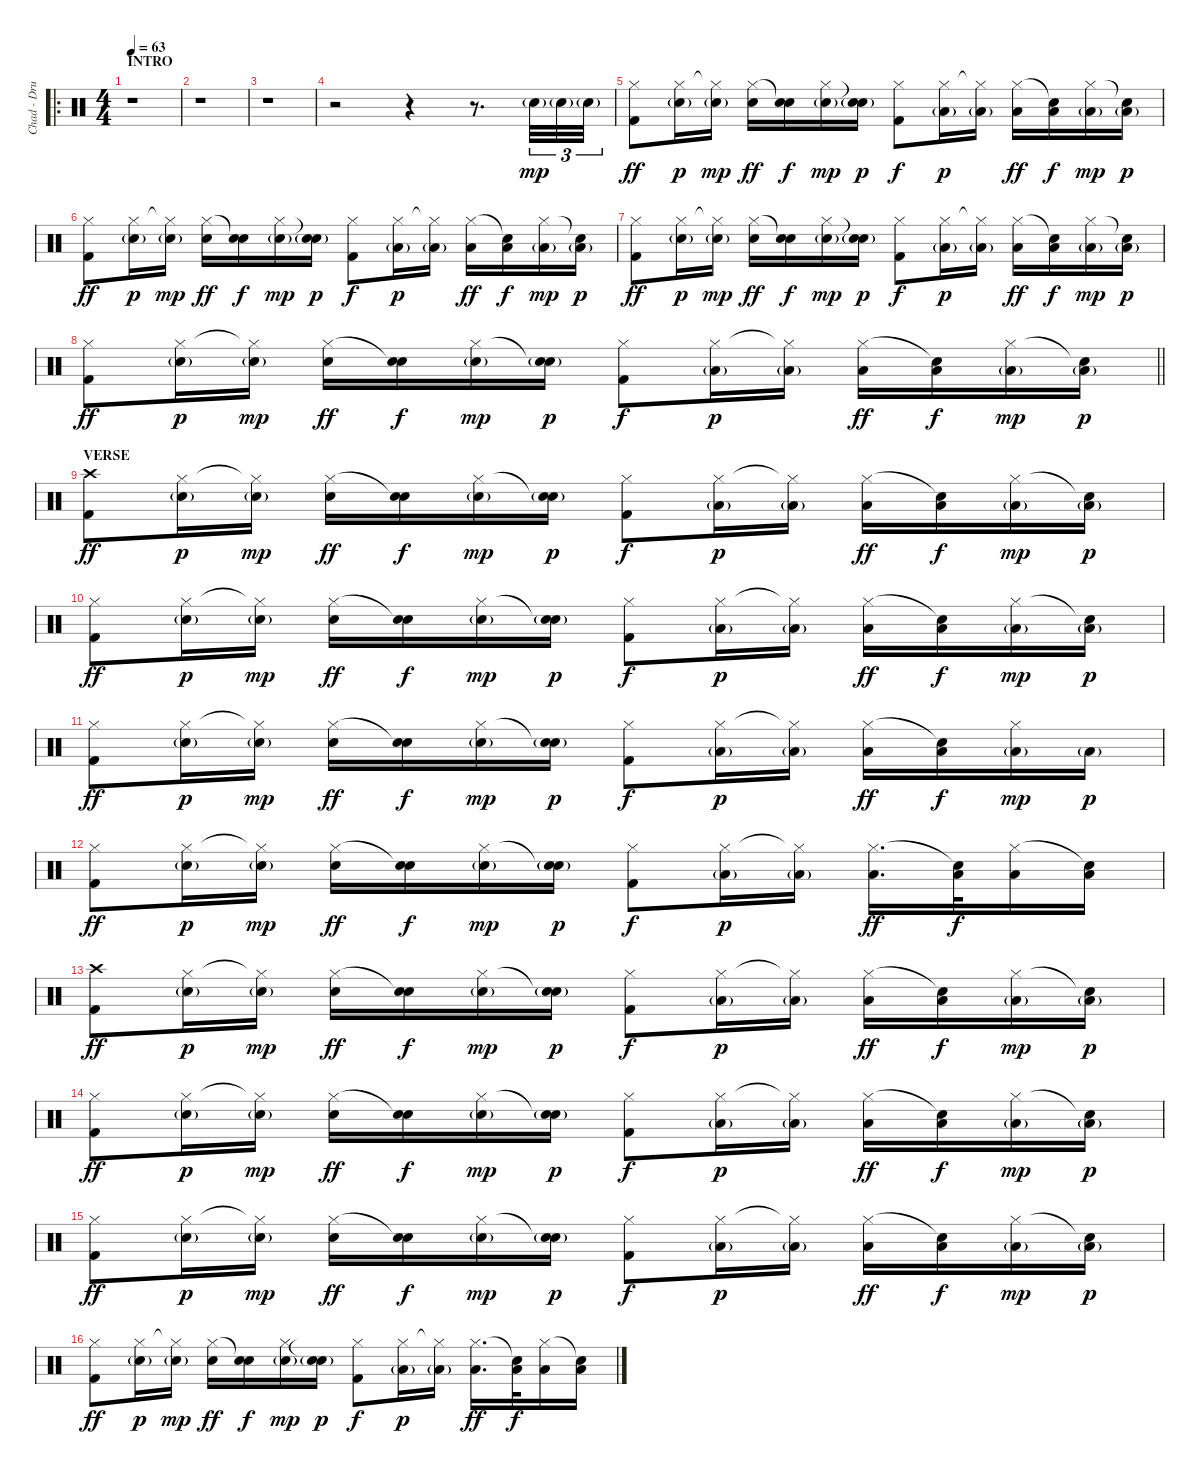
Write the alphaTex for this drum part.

\track ("Chad - Drums" "Chad - Dru") {instrument percussion}
\staff {score}
\articulation defaults
\ro
\ts (4 4)
\section ("" "INTRO")
\tempo 63
\clef neutral
\ks c
r.1{dy mp} |
r.1 |
r.1 |
r.2 r.4 r.8{d} "Snare (hit) 2"{g}.32{tu (3 2)} "Snare (hit) 2"{g}.32{tu (3 2)} "Snare (hit) 2"{g}.32{tu (3 2)} |
("Hi-Hat (closed)" "Kick (hit) 2").8{dy ff} ("Hi-Hat (closed)" "Snare (hit) 2"{g}).16{dy p} ("Hi-Hat (closed)"{t} "Snare (hit) 2"{g}).16{dy mp} ("Hi-Hat (closed)" "Snare (hit) 2").16{dy ff} ("Snare (hit)"{t} "Snare (hit) 2").16{dy f} ("Hi-Hat (closed)" "Snare (hit) 2"{g}).16{dy mp} ("Snare (hit)"{t} "Snare (hit) 2"{g}).16{dy p} ("Hi-Hat (closed)" "Kick (hit) 2").8{dy f} ("Hi-Hat (closed)" "Low Floor Tom (hit)"{g}).16{dy p} ("Hi-Hat (closed)"{t} "Low Floor Tom (hit)"{g}).16 ("Hi-Hat (closed)" "Low Floor Tom (hit)").16{dy ff} ("Snare (hit)"{t} "Low Floor Tom (hit)").16{dy f} ("Hi-Hat (closed)" "Low Floor Tom (hit)"{g}).16{dy mp} ("Snare (hit)"{t} "Low Floor Tom (hit)"{g}).16{dy p} |
("Hi-Hat (closed)" "Kick (hit) 2").8{dy ff} ("Hi-Hat (closed)" "Snare (hit) 2"{g}).16{dy p} ("Hi-Hat (closed)"{t} "Snare (hit) 2"{g}).16{dy mp} ("Hi-Hat (closed)" "Snare (hit) 2").16{dy ff} ("Snare (hit)"{t} "Snare (hit) 2").16{dy f} ("Hi-Hat (closed)" "Snare (hit) 2"{g}).16{dy mp} ("Snare (hit)"{t} "Snare (hit) 2"{g}).16{dy p} ("Hi-Hat (closed)" "Kick (hit) 2").8{dy f} ("Hi-Hat (closed)" "Low Floor Tom (hit)"{g}).16{dy p} ("Hi-Hat (closed)"{t} "Low Floor Tom (hit)"{g}).16 ("Hi-Hat (closed)" "Low Floor Tom (hit)").16{dy ff} ("Snare (hit)"{t} "Low Floor Tom (hit)").16{dy f} ("Hi-Hat (closed)" "Low Floor Tom (hit)"{g}).16{dy mp} ("Snare (hit)"{t} "Low Floor Tom (hit)"{g}).16{dy p} |
("Hi-Hat (closed)" "Kick (hit) 2").8{dy ff} ("Hi-Hat (closed)" "Snare (hit) 2"{g}).16{dy p} ("Hi-Hat (closed)"{t} "Snare (hit) 2"{g}).16{dy mp} ("Hi-Hat (closed)" "Snare (hit) 2").16{dy ff} ("Snare (hit)"{t} "Snare (hit) 2").16{dy f} ("Hi-Hat (closed)" "Snare (hit) 2"{g}).16{dy mp} ("Snare (hit)"{t} "Snare (hit) 2"{g}).16{dy p} ("Hi-Hat (closed)" "Kick (hit) 2").8{dy f} ("Hi-Hat (closed)" "Low Floor Tom (hit)"{g}).16{dy p} ("Hi-Hat (closed)"{t} "Low Floor Tom (hit)"{g}).16 ("Hi-Hat (closed)" "Low Floor Tom (hit)").16{dy ff} ("Snare (hit)"{t} "Low Floor Tom (hit)").16{dy f} ("Hi-Hat (closed)" "Low Floor Tom (hit)"{g}).16{dy mp} ("Snare (hit)"{t} "Low Floor Tom (hit)"{g}).16{dy p} |
\barLineRight lightlight
("Hi-Hat (closed)" "Kick (hit) 2").8{dy ff} ("Hi-Hat (closed)" "Snare (hit) 2"{g}).16{dy p} ("Hi-Hat (closed)"{t} "Snare (hit) 2"{g}).16{dy mp} ("Hi-Hat (closed)" "Snare (hit) 2").16{dy ff} ("Snare (hit)"{t} "Snare (hit) 2").16{dy f} ("Hi-Hat (closed)" "Snare (hit) 2"{g}).16{dy mp} ("Snare (hit)"{t} "Snare (hit) 2"{g}).16{dy p} ("Hi-Hat (closed)" "Kick (hit) 2").8{dy f} ("Hi-Hat (closed)" "Low Floor Tom (hit)"{g}).16{dy p} ("Hi-Hat (closed)"{t} "Low Floor Tom (hit)"{g}).16 ("Hi-Hat (closed)" "Low Floor Tom (hit)").16{dy ff} ("Snare (hit)"{t} "Low Floor Tom (hit)").16{dy f} ("Hi-Hat (closed)" "Low Floor Tom (hit)"{g}).16{dy mp} ("Snare (hit)"{t} "Low Floor Tom (hit)"{g}).16{dy p} |
\section ("" "VERSE")
("Crash high (hit)" "Kick (hit) 2").8{dy ff} ("Hi-Hat (closed)" "Snare (hit) 2"{g}).16{dy p} ("Hi-Hat (closed)"{t} "Snare (hit) 2"{g}).16{dy mp} ("Hi-Hat (closed)" "Snare (hit) 2").16{dy ff} ("Snare (hit)"{t} "Snare (hit) 2").16{dy f} ("Hi-Hat (closed)" "Snare (hit) 2"{g}).16{dy mp} ("Snare (hit)"{t} "Snare (hit) 2"{g}).16{dy p} ("Hi-Hat (closed)" "Kick (hit) 2").8{dy f} ("Hi-Hat (closed)" "Low Floor Tom (hit)"{g}).16{dy p} ("Hi-Hat (closed)"{t} "Low Floor Tom (hit)"{g}).16 ("Hi-Hat (closed)" "Low Floor Tom (hit)").16{dy ff} ("Snare (hit)"{t} "Low Floor Tom (hit)").16{dy f} ("Hi-Hat (closed)" "Low Floor Tom (hit)"{g}).16{dy mp} ("Snare (hit)"{t} "Low Floor Tom (hit)"{g}).16{dy p} |
("Hi-Hat (closed)" "Kick (hit) 2").8{dy ff} ("Hi-Hat (closed)" "Snare (hit) 2"{g}).16{dy p} ("Hi-Hat (closed)"{t} "Snare (hit) 2"{g}).16{dy mp} ("Hi-Hat (closed)" "Snare (hit) 2").16{dy ff} ("Snare (hit)"{t} "Snare (hit) 2").16{dy f} ("Hi-Hat (closed)" "Snare (hit) 2"{g}).16{dy mp} ("Snare (hit)"{t} "Snare (hit) 2"{g}).16{dy p} ("Hi-Hat (closed)" "Kick (hit) 2").8{dy f} ("Hi-Hat (closed)" "Low Floor Tom (hit)"{g}).16{dy p} ("Hi-Hat (closed)"{t} "Low Floor Tom (hit)"{g}).16 ("Hi-Hat (closed)" "Low Floor Tom (hit)").16{dy ff} ("Snare (hit)"{t} "Low Floor Tom (hit)").16{dy f} ("Hi-Hat (closed)" "Low Floor Tom (hit)"{g}).16{dy mp} ("Snare (hit)"{t} "Low Floor Tom (hit)"{g}).16{dy p} |
("Hi-Hat (closed)" "Kick (hit) 2").8{dy ff} ("Hi-Hat (closed)" "Snare (hit) 2"{g}).16{dy p} ("Hi-Hat (closed)"{t} "Snare (hit) 2"{g}).16{dy mp} ("Hi-Hat (closed)" "Snare (hit) 2").16{dy ff} ("Snare (hit)"{t} "Snare (hit) 2").16{dy f} ("Hi-Hat (closed)" "Snare (hit) 2"{g}).16{dy mp} ("Snare (hit)"{t} "Snare (hit) 2"{g}).16{dy p} ("Hi-Hat (closed)" "Kick (hit) 2").8{dy f} ("Hi-Hat (closed)" "Low Floor Tom (hit)"{g}).16{dy p} ("Hi-Hat (closed)"{t} "Low Floor Tom (hit)"{g}).16 ("Hi-Hat (closed)" "Low Floor Tom (hit)").16{dy ff} ("Snare (hit)"{t} "Low Floor Tom (hit)").16{dy f} ("Hi-Hat (closed)" "Low Floor Tom (hit)"{g}).16{dy mp} "Low Floor Tom (hit)"{g}.16{dy p} |
("Hi-Hat (closed)" "Kick (hit) 2").8{dy ff} ("Hi-Hat (closed)" "Snare (hit) 2"{g}).16{dy p} ("Hi-Hat (closed)"{t} "Snare (hit) 2"{g}).16{dy mp} ("Hi-Hat (closed)" "Snare (hit) 2").16{dy ff} ("Snare (hit)"{t} "Snare (hit) 2").16{dy f} ("Hi-Hat (closed)" "Snare (hit) 2"{g}).16{dy mp} ("Snare (hit)"{t} "Snare (hit) 2"{g}).16{dy p} ("Hi-Hat (closed)" "Kick (hit) 2").8{dy f} ("Hi-Hat (closed)" "Low Floor Tom (hit)"{g}).16{dy p} ("Hi-Hat (closed)"{t} "Low Floor Tom (hit)"{g}).16 ("Hi-Hat (closed)" "Low Floor Tom (hit)").16{d dy ff} ("Snare (hit)"{t} "Low Floor Tom (hit)").32{dy f} ("Hi-Hat (closed)" "Low Floor Tom (hit)").16 ("Snare (hit)"{t} "Low Floor Tom (hit)").16 |
("Crash high (hit)" "Kick (hit) 2").8{dy ff} ("Hi-Hat (closed)" "Snare (hit) 2"{g}).16{dy p} ("Hi-Hat (closed)"{t} "Snare (hit) 2"{g}).16{dy mp} ("Hi-Hat (closed)" "Snare (hit) 2").16{dy ff} ("Snare (hit)"{t} "Snare (hit) 2").16{dy f} ("Hi-Hat (closed)" "Snare (hit) 2"{g}).16{dy mp} ("Snare (hit)"{t} "Snare (hit) 2"{g}).16{dy p} ("Hi-Hat (closed)" "Kick (hit) 2").8{dy f} ("Hi-Hat (closed)" "Low Floor Tom (hit)"{g}).16{dy p} ("Hi-Hat (closed)"{t} "Low Floor Tom (hit)"{g}).16 ("Hi-Hat (closed)" "Low Floor Tom (hit)").16{dy ff} ("Snare (hit)"{t} "Low Floor Tom (hit)").16{dy f} ("Hi-Hat (closed)" "Low Floor Tom (hit)"{g}).16{dy mp} ("Snare (hit)"{t} "Low Floor Tom (hit)"{g}).16{dy p} |
("Hi-Hat (closed)" "Kick (hit) 2").8{dy ff} ("Hi-Hat (closed)" "Snare (hit) 2"{g}).16{dy p} ("Hi-Hat (closed)"{t} "Snare (hit) 2"{g}).16{dy mp} ("Hi-Hat (closed)" "Snare (hit) 2").16{dy ff} ("Snare (hit)"{t} "Snare (hit) 2").16{dy f} ("Hi-Hat (closed)" "Snare (hit) 2"{g}).16{dy mp} ("Snare (hit)"{t} "Snare (hit) 2"{g}).16{dy p} ("Hi-Hat (closed)" "Kick (hit) 2").8{dy f} ("Hi-Hat (closed)" "Low Floor Tom (hit)"{g}).16{dy p} ("Hi-Hat (closed)"{t} "Low Floor Tom (hit)"{g}).16 ("Hi-Hat (closed)" "Low Floor Tom (hit)").16{dy ff} ("Snare (hit)"{t} "Low Floor Tom (hit)").16{dy f} ("Hi-Hat (closed)" "Low Floor Tom (hit)"{g}).16{dy mp} ("Snare (hit)"{t} "Low Floor Tom (hit)"{g}).16{dy p} |
("Hi-Hat (closed)" "Kick (hit) 2").8{dy ff} ("Hi-Hat (closed)" "Snare (hit) 2"{g}).16{dy p} ("Hi-Hat (closed)"{t} "Snare (hit) 2"{g}).16{dy mp} ("Hi-Hat (closed)" "Snare (hit) 2").16{dy ff} ("Snare (hit)"{t} "Snare (hit) 2").16{dy f} ("Hi-Hat (closed)" "Snare (hit) 2"{g}).16{dy mp} ("Snare (hit)"{t} "Snare (hit) 2"{g}).16{dy p} ("Hi-Hat (closed)" "Kick (hit) 2").8{dy f} ("Hi-Hat (closed)" "Low Floor Tom (hit)"{g}).16{dy p} ("Hi-Hat (closed)"{t} "Low Floor Tom (hit)"{g}).16 ("Hi-Hat (closed)" "Low Floor Tom (hit)").16{dy ff} ("Snare (hit)"{t} "Low Floor Tom (hit)").16{dy f} ("Hi-Hat (closed)" "Low Floor Tom (hit)"{g}).16{dy mp} ("Snare (hit)"{t} "Low Floor Tom (hit)"{g}).16{dy p} |
("Hi-Hat (closed)" "Kick (hit) 2").8{dy ff} ("Hi-Hat (closed)" "Snare (hit) 2"{g}).16{dy p} ("Hi-Hat (closed)"{t} "Snare (hit) 2"{g}).16{dy mp} ("Hi-Hat (closed)" "Snare (hit) 2").16{dy ff} ("Snare (hit)"{t} "Snare (hit) 2").16{dy f} ("Hi-Hat (closed)" "Snare (hit) 2"{g}).16{dy mp} ("Snare (hit)"{t} "Snare (hit) 2"{g}).16{dy p} ("Hi-Hat (closed)" "Kick (hit) 2").8{dy f} ("Hi-Hat (closed)" "Low Floor Tom (hit)"{g}).16{dy p} ("Hi-Hat (closed)"{t} "Low Floor Tom (hit)"{g}).16 ("Hi-Hat (closed)" "Low Floor Tom (hit)").16{d dy ff} ("Snare (hit)"{t} "Low Floor Tom (hit)").32{dy f} ("Hi-Hat (closed)" "Low Floor Tom (hit)").16 ("Snare (hit)"{t} "Low Floor Tom (hit)").16
